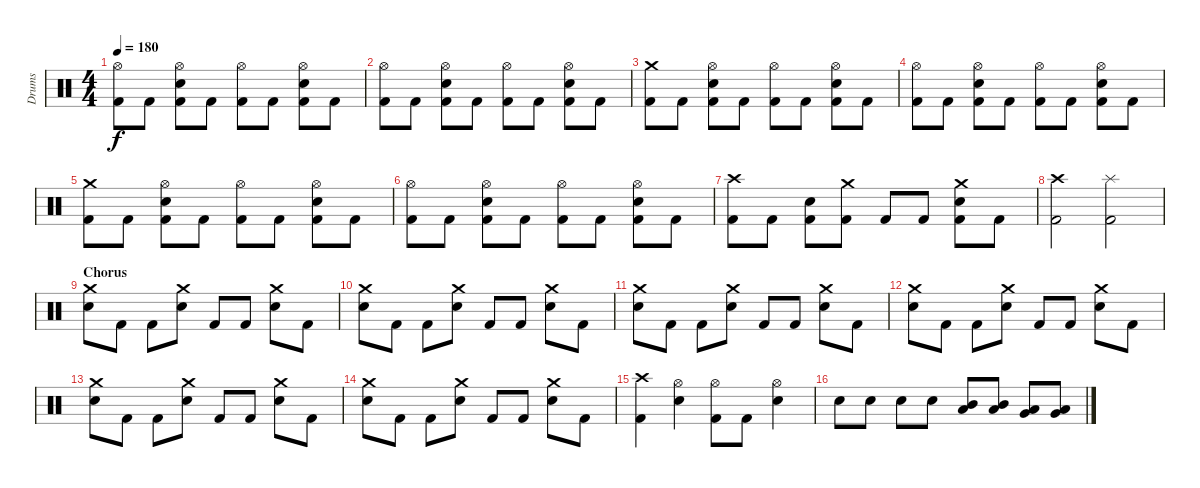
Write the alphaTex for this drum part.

\track ("Drums" "Drums") {instrument percussion}
\staff {score}
\articulation defaults
\ts (4 4)
\tempo 180
\clef neutral
\ks c
("Hi-Hat (open)" "Kick (hit) 2").8{dy f} "Kick (hit) 2".8 ("Hi-Hat (open)" "Electric Snare (hit)" "Kick (hit) 2").8 "Kick (hit) 2".8 ("Hi-Hat (open)" "Kick (hit) 2").8 "Kick (hit) 2".8 ("Hi-Hat (open)" "Electric Snare (hit)" "Kick (hit) 2").8 "Kick (hit) 2".8 |
("Hi-Hat (open)" "Kick (hit) 2").8 "Kick (hit) 2".8 ("Hi-Hat (open)" "Electric Snare (hit)" "Kick (hit) 2").8 "Kick (hit) 2".8 ("Hi-Hat (open)" "Kick (hit) 2").8 "Kick (hit) 2".8 ("Hi-Hat (open)" "Electric Snare (hit)" "Kick (hit) 2").8 "Kick (hit) 2".8 |
("Crash medium (hit)" "Kick (hit) 2").8 "Kick (hit) 2".8 ("Hi-Hat (open)" "Electric Snare (hit)" "Kick (hit) 2").8 "Kick (hit) 2".8 ("Hi-Hat (open)" "Kick (hit) 2").8 "Kick (hit) 2".8 ("Hi-Hat (open)" "Electric Snare (hit)" "Kick (hit) 2").8 "Kick (hit) 2".8 |
("Hi-Hat (open)" "Kick (hit) 2").8 "Kick (hit) 2".8 ("Hi-Hat (open)" "Electric Snare (hit)" "Kick (hit) 2").8 "Kick (hit) 2".8 ("Hi-Hat (open)" "Kick (hit) 2").8 "Kick (hit) 2".8 ("Hi-Hat (open)" "Electric Snare (hit)" "Kick (hit) 2").8 "Kick (hit) 2".8 |
("Crash medium (hit)" "Kick (hit) 2").8 "Kick (hit) 2".8 ("Hi-Hat (open)" "Electric Snare (hit)" "Kick (hit) 2").8 "Kick (hit) 2".8 ("Hi-Hat (open)" "Kick (hit) 2").8 "Kick (hit) 2".8 ("Hi-Hat (open)" "Electric Snare (hit)" "Kick (hit) 2").8 "Kick (hit) 2".8 |
("Hi-Hat (open)" "Kick (hit) 2").8 "Kick (hit) 2".8 ("Hi-Hat (open)" "Electric Snare (hit)" "Kick (hit) 2").8 "Kick (hit) 2".8 ("Hi-Hat (open)" "Kick (hit) 2").8 "Kick (hit) 2".8 ("Hi-Hat (open)" "Electric Snare (hit)" "Kick (hit) 2").8 "Kick (hit) 2".8 |
("Crash high (hit)" "Kick (hit) 2").8 "Kick (hit) 2".8 ("Electric Snare (hit)" "Kick (hit) 2").8 ("Crash medium (hit)" "Kick (hit) 2").8 "Kick (hit) 2".8 "Kick (hit) 2".8 ("Crash medium (hit)" "Electric Snare (hit)" "Kick (hit) 2").8 "Kick (hit) 2".8 |
("Crash high (hit)" "Kick (hit) 2").2 ("Splash (hit)" "Kick (hit) 2").2 |
\section ("" "Chorus")
("Crash medium (hit)" "Electric Snare (hit)").8 "Kick (hit) 2".8 "Kick (hit) 2".8 ("Crash medium (hit)" "Electric Snare (hit)").8 "Kick (hit) 2".8 "Kick (hit) 2".8 ("Crash medium (hit)" "Electric Snare (hit)").8 "Kick (hit) 2".8 |
("Crash medium (hit)" "Electric Snare (hit)").8 "Kick (hit) 2".8 "Kick (hit) 2".8 ("Crash medium (hit)" "Electric Snare (hit)").8 "Kick (hit) 2".8 "Kick (hit) 2".8 ("Crash medium (hit)" "Electric Snare (hit)").8 "Kick (hit) 2".8 |
("Crash medium (hit)" "Electric Snare (hit)").8 "Kick (hit) 2".8 "Kick (hit) 2".8 ("Crash medium (hit)" "Electric Snare (hit)").8 "Kick (hit) 2".8 "Kick (hit) 2".8 ("Crash medium (hit)" "Electric Snare (hit)").8 "Kick (hit) 2".8 |
("Crash medium (hit)" "Electric Snare (hit)").8 "Kick (hit) 2".8 "Kick (hit) 2".8 ("Crash medium (hit)" "Electric Snare (hit)").8 "Kick (hit) 2".8 "Kick (hit) 2".8 ("Crash medium (hit)" "Electric Snare (hit)").8 "Kick (hit) 2".8 |
("Crash medium (hit)" "Electric Snare (hit)").8 "Kick (hit) 2".8 "Kick (hit) 2".8 ("Crash medium (hit)" "Electric Snare (hit)").8 "Kick (hit) 2".8 "Kick (hit) 2".8 ("Crash medium (hit)" "Electric Snare (hit)").8 "Kick (hit) 2".8 |
("Crash medium (hit)" "Electric Snare (hit)").8 "Kick (hit) 2".8 "Kick (hit) 2".8 ("Crash medium (hit)" "Electric Snare (hit)").8 "Kick (hit) 2".8 "Kick (hit) 2".8 ("Crash medium (hit)" "Electric Snare (hit)").8 "Kick (hit) 2".8 |
("Crash high (hit)" "Kick (hit) 2").4 ("Hi-Hat (open)" "Electric Snare (hit)").4 ("Hi-Hat (open)" "Kick (hit) 2").8 "Kick (hit) 2".8 ("Hi-Hat (open)" "Electric Snare (hit)").4 |
"Electric Snare (hit)".8 "Electric Snare (hit)".8 "Electric Snare (hit)".8 "Electric Snare (hit)".8 ("Mid Tom (hit)" "Low Tom (hit)").8 ("Mid Tom (hit)" "Low Tom (hit)").8 ("Low Tom (hit)" "Very Low Tom (hit)").8 ("Low Tom (hit)" "Very Low Tom (hit)").8
